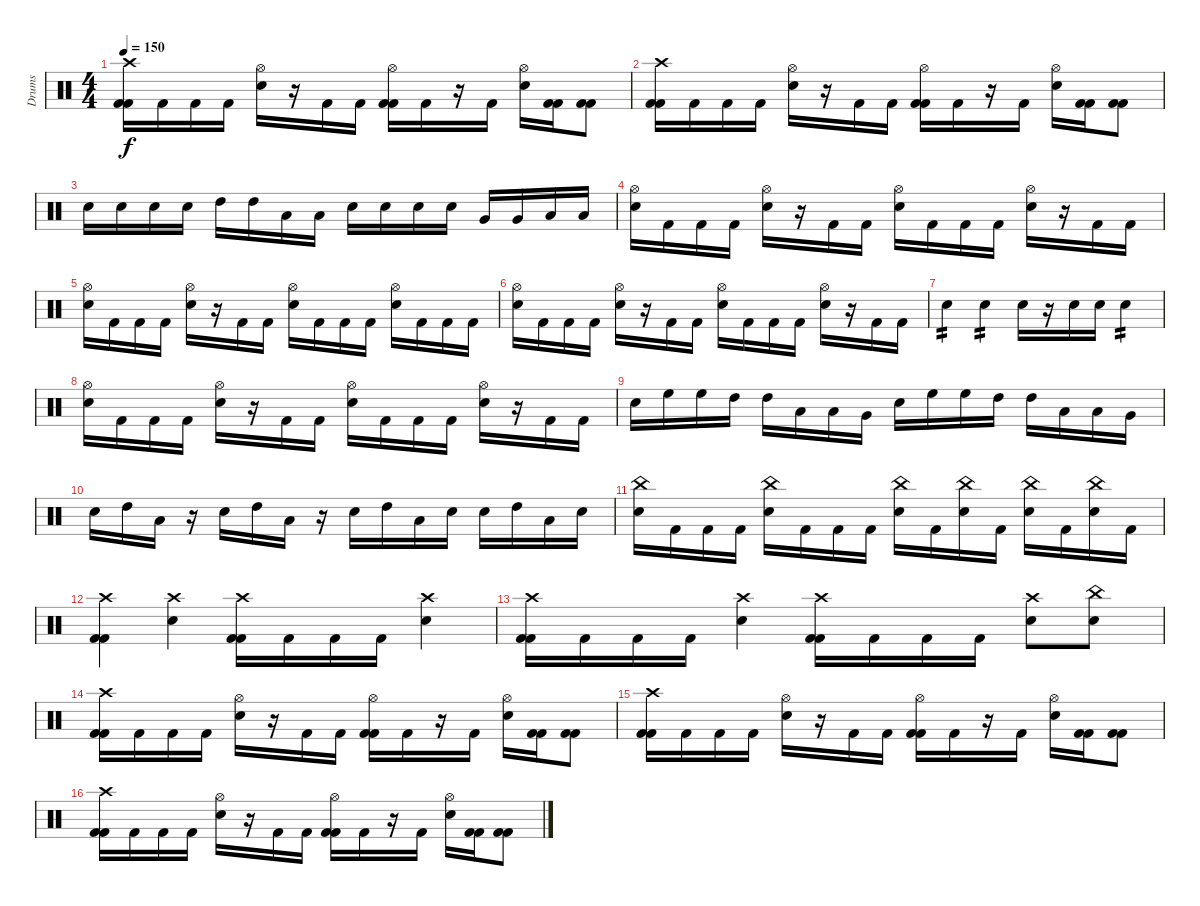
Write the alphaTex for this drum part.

\track ("Drums" "Drums") {instrument percussion}
\staff {score}
\articulation defaults
\ts (4 4)
\tempo 150
\clef neutral
\ks c
("Crash high (hit)" "Kick (hit) 2" "Kick (hit) 2").16{dy f} "Kick (hit) 2".16 "Kick (hit) 2".16 "Kick (hit) 2".16 ("Electric Snare (hit)" "Hi-Hat (open)").16 r.16 "Kick (hit) 2".16 "Kick (hit) 2".16 ("Hi-Hat (open)" "Kick (hit) 2" "Kick (hit) 2").16 "Kick (hit) 2".16 r.16 "Kick (hit) 2".16 ("Electric Snare (hit)" "Hi-Hat (open)").16 ("Kick (hit) 2" "Kick (hit) 2").16 ("Kick (hit) 2" "Kick (hit) 2").8 |
("Crash high (hit)" "Kick (hit) 2" "Kick (hit) 2").16 "Kick (hit) 2".16 "Kick (hit) 2".16 "Kick (hit) 2".16 ("Electric Snare (hit)" "Hi-Hat (open)").16 r.16 "Kick (hit) 2".16 "Kick (hit) 2".16 ("Hi-Hat (open)" "Kick (hit) 2" "Kick (hit) 2").16 "Kick (hit) 2".16 r.16 "Kick (hit) 2".16 ("Electric Snare (hit)" "Hi-Hat (open)").16 ("Kick (hit) 2" "Kick (hit) 2").16 ("Kick (hit) 2" "Kick (hit) 2").8 |
"Electric Snare (hit)".16 "Electric Snare (hit)".16 "Electric Snare (hit)".16 "Electric Snare (hit)".16 "High Tom (hit)".16 "High Tom (hit)".16 "Low Tom (hit)".16 "Low Tom (hit)".16 "Electric Snare (hit)".16 "Electric Snare (hit)".16 "Electric Snare (hit)".16 "Electric Snare (hit)".16 "Very Low Tom (hit)".16 "Very Low Tom (hit)".16 "Low Floor Tom (hit)".16 "Low Floor Tom (hit)".16 |
("Hi-Hat (open)" "Electric Snare (hit)").16 "Kick (hit) 2".16 "Kick (hit) 2".16 "Kick (hit) 2".16 ("Electric Snare (hit)" "Hi-Hat (open)").16 r.16 "Kick (hit) 2".16 "Kick (hit) 2".16 ("Hi-Hat (open)" "Electric Snare (hit)").16 "Kick (hit) 2".16 "Kick (hit) 2".16 "Kick (hit) 2".16 ("Electric Snare (hit)" "Hi-Hat (open)").16 r.16 "Kick (hit) 2".16 "Kick (hit) 2".16 |
("Hi-Hat (open)" "Electric Snare (hit)").16 "Kick (hit) 2".16 "Kick (hit) 2".16 "Kick (hit) 2".16 ("Electric Snare (hit)" "Hi-Hat (open)").16 r.16 "Kick (hit) 2".16 "Kick (hit) 2".16 ("Hi-Hat (open)" "Electric Snare (hit)").16 "Kick (hit) 2".16 "Kick (hit) 2".16 "Kick (hit) 2".16 ("Electric Snare (hit)" "Hi-Hat (open)").16 "Kick (hit) 2".16 "Kick (hit) 2".16 "Kick (hit) 2".16 |
("Hi-Hat (open)" "Electric Snare (hit)").16 "Kick (hit) 2".16 "Kick (hit) 2".16 "Kick (hit) 2".16 ("Electric Snare (hit)" "Hi-Hat (open)").16 r.16 "Kick (hit) 2".16 "Kick (hit) 2".16 ("Hi-Hat (open)" "Electric Snare (hit)").16 "Kick (hit) 2".16 "Kick (hit) 2".16 "Kick (hit) 2".16 ("Electric Snare (hit)" "Hi-Hat (open)").16 r.16 "Kick (hit) 2".16 "Kick (hit) 2".16 |
"Electric Snare (hit)".4{tp 2} "Electric Snare (hit)".4{tp 2} "Electric Snare (hit)".16 r.16 "Electric Snare (hit)".16 "Electric Snare (hit)".16 "Electric Snare (hit)".4{tp 2} |
("Hi-Hat (open)" "Electric Snare (hit)").16 "Kick (hit) 2".16 "Kick (hit) 2".16 "Kick (hit) 2".16 ("Electric Snare (hit)" "Hi-Hat (open)").16 r.16 "Kick (hit) 2".16 "Kick (hit) 2".16 ("Hi-Hat (open)" "Electric Snare (hit)").16 "Kick (hit) 2".16 "Kick (hit) 2".16 "Kick (hit) 2".16 ("Electric Snare (hit)" "Hi-Hat (open)").16 r.16 "Kick (hit) 2".16 "Kick (hit) 2".16 |
"Electric Snare (hit)".16 "High Floor Tom (hit)".16 "High Floor Tom (hit)".16 "High Tom (hit)".16 "High Tom (hit)".16 "Low Tom (hit)".16 "Low Tom (hit)".16 "Very Low Tom (hit)".16 "Electric Snare (hit)".16 "High Floor Tom (hit)".16 "High Floor Tom (hit)".16 "High Tom (hit)".16 "High Tom (hit)".16 "Low Tom (hit)".16 "Low Tom (hit)".16 "Very Low Tom (hit)".16 |
"Electric Snare (hit)".16 "High Tom (hit)".16 "Low Tom (hit)".16 r.16 "Electric Snare (hit)".16 "High Tom (hit)".16 "Low Tom (hit)".16 r.16 "Electric Snare (hit)".16 "High Tom (hit)".16 "Low Tom (hit)".16 "Electric Snare (hit)".16 "Electric Snare (hit)".16 "High Tom (hit)".16 "Low Tom (hit)".16 "Electric Snare (hit)".16 |
("China (hit)" "Electric Snare (hit)").16 "Kick (hit) 2".16 "Kick (hit) 2".16 "Kick (hit) 2".16 ("Electric Snare (hit)" "China (hit)").16 "Kick (hit) 2".16 "Kick (hit) 2".16 "Kick (hit) 2".16 ("China (hit)" "Electric Snare (hit)").16 "Kick (hit) 2".16 ("China (hit)" "Electric Snare (hit)").16 "Kick (hit) 2".16 ("Electric Snare (hit)" "China (hit)").16 "Kick (hit) 2".16 ("China (hit)" "Electric Snare (hit)").16 "Kick (hit) 2".16 |
("Crash high (hit)" "Kick (hit) 2" "Kick (hit) 2").4 ("Crash high (hit)" "Electric Snare (hit)").4 ("Crash high (hit)" "Kick (hit) 2" "Kick (hit) 2").16 "Kick (hit) 2".16 "Kick (hit) 2".16 "Kick (hit) 2".16 ("Electric Snare (hit)" "Crash high (hit)").4 |
("Crash high (hit)" "Kick (hit) 2" "Kick (hit) 2").16 "Kick (hit) 2".16 "Kick (hit) 2".16 "Kick (hit) 2".16 ("Electric Snare (hit)" "Crash high (hit)").4 ("Crash high (hit)" "Kick (hit) 2" "Kick (hit) 2").16 "Kick (hit) 2".16 "Kick (hit) 2".16 "Kick (hit) 2".16 ("Electric Snare (hit)" "Crash high (hit)").8 ("Electric Snare (hit)" "China (hit)").8 |
("Crash high (hit)" "Kick (hit) 2" "Kick (hit) 2").16 "Kick (hit) 2".16 "Kick (hit) 2".16 "Kick (hit) 2".16 ("Electric Snare (hit)" "Hi-Hat (open)").16 r.16 "Kick (hit) 2".16 "Kick (hit) 2".16 ("Hi-Hat (open)" "Kick (hit) 2" "Kick (hit) 2").16 "Kick (hit) 2".16 r.16 "Kick (hit) 2".16 ("Electric Snare (hit)" "Hi-Hat (open)").16 ("Kick (hit) 2" "Kick (hit) 2").16 ("Kick (hit) 2" "Kick (hit) 2").8 |
("Crash high (hit)" "Kick (hit) 2" "Kick (hit) 2").16 "Kick (hit) 2".16 "Kick (hit) 2".16 "Kick (hit) 2".16 ("Electric Snare (hit)" "Hi-Hat (open)").16 r.16 "Kick (hit) 2".16 "Kick (hit) 2".16 ("Hi-Hat (open)" "Kick (hit) 2" "Kick (hit) 2").16 "Kick (hit) 2".16 r.16 "Kick (hit) 2".16 ("Electric Snare (hit)" "Hi-Hat (open)").16 ("Kick (hit) 2" "Kick (hit) 2").16 ("Kick (hit) 2" "Kick (hit) 2").8 |
("Crash high (hit)" "Kick (hit) 2" "Kick (hit) 2").16 "Kick (hit) 2".16 "Kick (hit) 2".16 "Kick (hit) 2".16 ("Electric Snare (hit)" "Hi-Hat (open)").16 r.16 "Kick (hit) 2".16 "Kick (hit) 2".16 ("Hi-Hat (open)" "Kick (hit) 2" "Kick (hit) 2").16 "Kick (hit) 2".16 r.16 "Kick (hit) 2".16 ("Electric Snare (hit)" "Hi-Hat (open)").16 ("Kick (hit) 2" "Kick (hit) 2").16 ("Kick (hit) 2" "Kick (hit) 2").8
